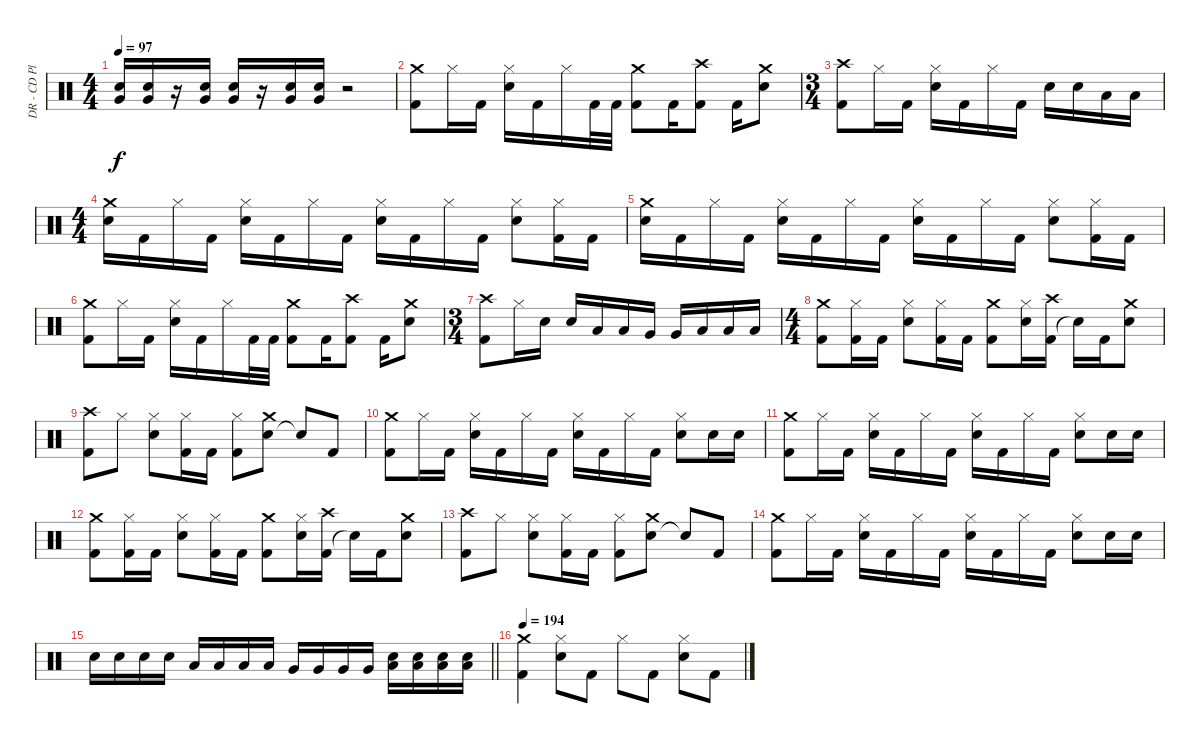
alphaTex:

\track ("DR - CD Player" "DR - CD Pl") {instrument percussion}
\staff {score}
\articulation defaults
\ts (4 4)
\tempo 97
\clef neutral
\ks c
("Electric Snare (hit)" "Very Low Tom (hit)").16{dy f} ("Electric Snare (hit)" "Very Low Tom (hit)").16 r.16 ("Electric Snare (hit)" "Very Low Tom (hit)").16 ("Electric Snare (hit)" "Very Low Tom (hit)").16 r.16 ("Electric Snare (hit)" "Very Low Tom (hit)").16 ("Electric Snare (hit)" "Very Low Tom (hit)").16 r.2 |
("Kick (hit) 2" "Crash medium (hit)").8 "Hi-Hat (closed)".16 "Kick (hit) 2".16 ("Electric Snare (hit)" "Hi-Hat (closed)").16 "Kick (hit) 2".16 "Hi-Hat (closed)".16 "Kick (hit) 2".32 "Kick (hit) 2".32 ("Kick (hit) 2" "Crash medium (hit)").8 "Kick (hit) 2".16 ("Kick (hit) 2" "Crash high (hit)").8 "Kick (hit) 2".16 ("Electric Snare (hit)" "Crash medium (hit)").8 |
\ts (3 4)
("Kick (hit) 2" "Crash high (hit)").8 "Hi-Hat (closed)".16 "Kick (hit) 2".16 ("Electric Snare (hit)" "Hi-Hat (closed)").16 "Kick (hit) 2".16 "Hi-Hat (closed)".16 "Kick (hit) 2".16 "Electric Snare (hit)".16 "Electric Snare (hit)".16 "Low Tom (hit)".16 "Low Tom (hit)".16 |
\ts (4 4)
("Electric Snare (hit)" "Crash medium (hit)").16 "Kick (hit) 2".16 "Hi-Hat (closed)".16 "Kick (hit) 2".16 ("Electric Snare (hit)" "Hi-Hat (closed)").16 "Kick (hit) 2".16 "Hi-Hat (closed)".16 "Kick (hit) 2".16 ("Electric Snare (hit)" "Hi-Hat (closed)").16 "Kick (hit) 2".16 "Hi-Hat (closed)".16 "Kick (hit) 2".16 ("Electric Snare (hit)" "Hi-Hat (closed)").8 ("Kick (hit) 2" "Hi-Hat (closed)").16 "Kick (hit) 2".16 |
("Electric Snare (hit)" "Crash medium (hit)").16 "Kick (hit) 2".16 "Hi-Hat (closed)".16 "Kick (hit) 2".16 ("Electric Snare (hit)" "Hi-Hat (closed)").16 "Kick (hit) 2".16 "Hi-Hat (closed)".16 "Kick (hit) 2".16 ("Electric Snare (hit)" "Hi-Hat (closed)").16 "Kick (hit) 2".16 "Hi-Hat (closed)".16 "Kick (hit) 2".16 ("Electric Snare (hit)" "Hi-Hat (closed)").8 ("Kick (hit) 2" "Hi-Hat (closed)").16 "Kick (hit) 2".16 |
("Kick (hit) 2" "Crash medium (hit)").8 "Hi-Hat (closed)".16 "Kick (hit) 2".16 ("Electric Snare (hit)" "Hi-Hat (closed)").16 "Kick (hit) 2".16 "Hi-Hat (closed)".16 "Kick (hit) 2".32 "Kick (hit) 2".32 ("Kick (hit) 2" "Crash medium (hit)").8 "Kick (hit) 2".16 ("Kick (hit) 2" "Crash high (hit)").8 "Kick (hit) 2".16 ("Electric Snare (hit)" "Crash medium (hit)").8 |
\ts (3 4)
("Kick (hit) 2" "Crash high (hit)").8 "Hi-Hat (closed)".16 "Electric Snare (hit)".16 "Electric Snare (hit)".16 "Low Tom (hit)".16 "Low Tom (hit)".16 "Very Low Tom (hit)".16 "Very Low Tom (hit)".16 "Low Floor Tom (hit)".16 "Low Floor Tom (hit)".16 "Low Floor Tom (hit)".16 |
\ts (4 4)
("Kick (hit) 2" "Crash medium (hit)").8 ("Kick (hit) 2" "Hi-Hat (closed)").16 "Kick (hit) 2".16 ("Electric Snare (hit)" "Hi-Hat (closed)").8 ("Kick (hit) 2" "Hi-Hat (closed)").16 "Kick (hit) 2".16 ("Kick (hit) 2" "Crash medium (hit)").8 ("Electric Snare (hit)" "Hi-Hat (closed)").16 ("Kick (hit) 2" "Crash high (hit)").16 "Snare (hit)"{t}.16 "Kick (hit) 2".16 ("Electric Snare (hit)" "Crash medium (hit)").8 |
("Kick (hit) 2" "Crash high (hit)").8 "Hi-Hat (closed)".8 ("Electric Snare (hit)" "Hi-Hat (closed)").8 ("Kick (hit) 2" "Hi-Hat (closed)").16 "Kick (hit) 2".16 ("Kick (hit) 2" "Hi-Hat (closed)").8 ("Electric Snare (hit)" "Crash medium (hit)").8 "Snare (hit)"{t}.8 "Kick (hit) 2".8 |
("Kick (hit) 2" "Crash medium (hit)").8 "Hi-Hat (closed)".16 "Kick (hit) 2".16 ("Electric Snare (hit)" "Hi-Hat (closed)").16 "Kick (hit) 2".16 "Hi-Hat (closed)".16 "Kick (hit) 2".16 ("Electric Snare (hit)" "Hi-Hat (closed)").16 "Kick (hit) 2".16 "Hi-Hat (closed)".16 "Kick (hit) 2".16 ("Electric Snare (hit)" "Hi-Hat (closed)").8 "Electric Snare (hit)".16 "Electric Snare (hit)".16 |
("Kick (hit) 2" "Crash medium (hit)").8 "Hi-Hat (closed)".16 "Kick (hit) 2".16 ("Electric Snare (hit)" "Hi-Hat (closed)").16 "Kick (hit) 2".16 "Hi-Hat (closed)".16 "Kick (hit) 2".16 ("Electric Snare (hit)" "Hi-Hat (closed)").16 "Kick (hit) 2".16 "Hi-Hat (closed)".16 "Kick (hit) 2".16 ("Electric Snare (hit)" "Hi-Hat (closed)").8 "Electric Snare (hit)".16 "Electric Snare (hit)".16 |
("Kick (hit) 2" "Crash medium (hit)").8 ("Kick (hit) 2" "Hi-Hat (closed)").16 "Kick (hit) 2".16 ("Electric Snare (hit)" "Hi-Hat (closed)").8 ("Kick (hit) 2" "Hi-Hat (closed)").16 "Kick (hit) 2".16 ("Kick (hit) 2" "Crash medium (hit)").8 ("Electric Snare (hit)" "Hi-Hat (closed)").16 ("Kick (hit) 2" "Crash high (hit)").16 "Snare (hit)"{t}.16 "Kick (hit) 2".16 ("Electric Snare (hit)" "Crash medium (hit)").8 |
("Kick (hit) 2" "Crash high (hit)").8 "Hi-Hat (closed)".8 ("Electric Snare (hit)" "Hi-Hat (closed)").8 ("Kick (hit) 2" "Hi-Hat (closed)").16 "Kick (hit) 2".16 ("Kick (hit) 2" "Hi-Hat (closed)").8 ("Electric Snare (hit)" "Crash medium (hit)").8 "Snare (hit)"{t}.8 "Kick (hit) 2".8 |
("Kick (hit) 2" "Crash medium (hit)").8 "Hi-Hat (closed)".16 "Kick (hit) 2".16 ("Electric Snare (hit)" "Hi-Hat (closed)").16 "Kick (hit) 2".16 "Hi-Hat (closed)".16 "Kick (hit) 2".16 ("Electric Snare (hit)" "Hi-Hat (closed)").16 "Kick (hit) 2".16 "Hi-Hat (closed)".16 "Kick (hit) 2".16 ("Electric Snare (hit)" "Hi-Hat (closed)").8 "Electric Snare (hit)".16 "Electric Snare (hit)".16 |
\barLineRight lightlight "Electric Snare (hit)".16 "Electric Snare (hit)".16 "Electric Snare (hit)".16 "Electric Snare (hit)".16 "Low Tom (hit)".16 "Low Tom (hit)".16 "Low Tom (hit)".16 "Low Tom (hit)".16 "Very Low Tom (hit)".16 "Very Low Tom (hit)".16 "Very Low Tom (hit)".16 "Very Low Tom (hit)".16
("Electric Snare (hit)" "Low Floor Tom (hit)").16 ("Electric Snare (hit)" "Low Floor Tom (hit)").16 ("Electric Snare (hit)" "Low Floor Tom (hit)").16 ("Electric Snare (hit)" "Low Floor Tom (hit)").16 |
\tempo 194
("Kick (hit) 2" "Crash medium (hit)").4 ("Snare (hit) 2" "Hi-Hat (closed)").8 "Kick (hit) 2".8 "Hi-Hat (closed)".8 "Kick (hit) 2".8 ("Snare (hit) 2" "Hi-Hat (closed)").8 "Kick (hit) 2".8
